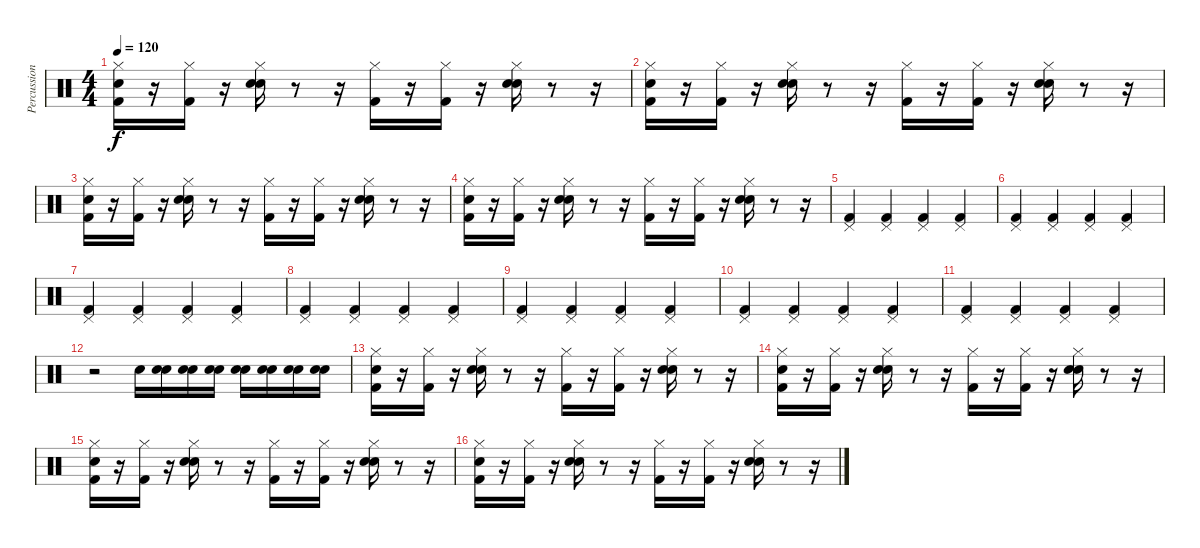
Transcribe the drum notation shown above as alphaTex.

\track ("Percussions" "Percussion") {instrument percussion}
\staff {score}
\articulation defaults
\ts (4 4)
\tempo 120
\clef neutral
\ks c
("Snare (hit)" "Kick (hit) 2" "Hi-Hat (closed)").16{dy f} r.16 ("Kick (hit) 2" "Hi-Hat (closed)").16 r.16 ("Hand Clap (hit)" "Hi-Hat (closed)" "Snare (hit) 2").16 r.8 r.16 ("Hi-Hat (closed)" "Kick (hit) 2").16 r.16 ("Hi-Hat (closed)" "Kick (hit) 2").16 r.16 ("Snare (hit) 2" "Hand Clap (hit)" "Hi-Hat (closed)").16 r.8 r.16 |
("Snare (hit)" "Kick (hit) 2" "Hi-Hat (closed)").16 r.16 ("Kick (hit) 2" "Hi-Hat (closed)").16 r.16 ("Hand Clap (hit)" "Hi-Hat (closed)" "Snare (hit) 2").16 r.8 r.16 ("Hi-Hat (closed)" "Kick (hit) 2").16 r.16 ("Hi-Hat (closed)" "Kick (hit) 2").16 r.16 ("Snare (hit) 2" "Hand Clap (hit)" "Hi-Hat (closed)").16 r.8 r.16 |
("Snare (hit)" "Kick (hit) 2" "Hi-Hat (closed)").16 r.16 ("Kick (hit) 2" "Hi-Hat (closed)").16 r.16 ("Hand Clap (hit)" "Hi-Hat (closed)" "Snare (hit) 2").16 r.8 r.16 ("Hi-Hat (closed)" "Kick (hit) 2").16 r.16 ("Hi-Hat (closed)" "Kick (hit) 2").16 r.16 ("Snare (hit) 2" "Hand Clap (hit)" "Hi-Hat (closed)").16 r.8 r.16 |
("Snare (hit)" "Kick (hit) 2" "Hi-Hat (closed)").16 r.16 ("Kick (hit) 2" "Hi-Hat (closed)").16 r.16 ("Hand Clap (hit)" "Hi-Hat (closed)" "Snare (hit) 2").16 r.8 r.16 ("Hi-Hat (closed)" "Kick (hit) 2").16 r.16 ("Hi-Hat (closed)" "Kick (hit) 2").16 r.16 ("Snare (hit) 2" "Hand Clap (hit)" "Hi-Hat (closed)").16 r.8 r.16 |
("Pedal Hi-Hat (hit)" "Kick (hit) 2").4 ("Pedal Hi-Hat (hit)" "Kick (hit) 2").4 ("Pedal Hi-Hat (hit)" "Kick (hit) 2").4 ("Pedal Hi-Hat (hit)" "Kick (hit) 2").4 |
("Pedal Hi-Hat (hit)" "Kick (hit) 2").4 ("Pedal Hi-Hat (hit)" "Kick (hit) 2").4 ("Pedal Hi-Hat (hit)" "Kick (hit) 2").4 ("Pedal Hi-Hat (hit)" "Kick (hit) 2").4 |
("Pedal Hi-Hat (hit)" "Kick (hit) 2").4 ("Pedal Hi-Hat (hit)" "Kick (hit) 2").4 ("Pedal Hi-Hat (hit)" "Kick (hit) 2").4 ("Pedal Hi-Hat (hit)" "Kick (hit) 2").4 |
("Pedal Hi-Hat (hit)" "Kick (hit) 2").4 ("Pedal Hi-Hat (hit)" "Kick (hit) 2").4 ("Pedal Hi-Hat (hit)" "Kick (hit) 2").4 ("Pedal Hi-Hat (hit)" "Kick (hit) 2").4 |
("Pedal Hi-Hat (hit)" "Kick (hit) 2").4 ("Pedal Hi-Hat (hit)" "Kick (hit) 2").4 ("Pedal Hi-Hat (hit)" "Kick (hit) 2").4 ("Pedal Hi-Hat (hit)" "Kick (hit) 2").4 |
("Pedal Hi-Hat (hit)" "Kick (hit) 2").4 ("Pedal Hi-Hat (hit)" "Kick (hit) 2").4 ("Pedal Hi-Hat (hit)" "Kick (hit) 2").4 ("Pedal Hi-Hat (hit)" "Kick (hit) 2").4 |
("Pedal Hi-Hat (hit)" "Kick (hit) 2").4 ("Pedal Hi-Hat (hit)" "Kick (hit) 2").4 ("Pedal Hi-Hat (hit)" "Kick (hit) 2").4 ("Pedal Hi-Hat (hit)" "Kick (hit) 2").4 |
r.2 "Snare (hit) 2".16 ("Snare (hit)" "Snare (hit) 2").16 ("Snare (hit)" "Snare (hit) 2").16 ("Snare (hit)" "Snare (hit) 2").16 ("Snare (hit)" "Snare (hit) 2").16 ("Snare (hit)" "Snare (hit) 2").16 ("Snare (hit)" "Snare (hit) 2").16 ("Snare (hit)" "Snare (hit) 2").16 |
("Snare (hit)" "Kick (hit) 2" "Hi-Hat (closed)").16 r.16 ("Kick (hit) 2" "Hi-Hat (closed)").16 r.16 ("Hand Clap (hit)" "Hi-Hat (closed)" "Snare (hit) 2").16 r.8 r.16 ("Hi-Hat (closed)" "Kick (hit) 2").16 r.16 ("Hi-Hat (closed)" "Kick (hit) 2").16 r.16 ("Snare (hit) 2" "Hand Clap (hit)" "Hi-Hat (closed)").16 r.8 r.16 |
("Snare (hit)" "Kick (hit) 2" "Hi-Hat (closed)").16 r.16 ("Kick (hit) 2" "Hi-Hat (closed)").16 r.16 ("Hand Clap (hit)" "Hi-Hat (closed)" "Snare (hit) 2").16 r.8 r.16 ("Hi-Hat (closed)" "Kick (hit) 2").16 r.16 ("Hi-Hat (closed)" "Kick (hit) 2").16 r.16 ("Snare (hit) 2" "Hand Clap (hit)" "Hi-Hat (closed)").16 r.8 r.16 |
("Snare (hit)" "Kick (hit) 2" "Hi-Hat (closed)").16 r.16 ("Kick (hit) 2" "Hi-Hat (closed)").16 r.16 ("Hand Clap (hit)" "Hi-Hat (closed)" "Snare (hit) 2").16 r.8 r.16 ("Hi-Hat (closed)" "Kick (hit) 2").16 r.16 ("Hi-Hat (closed)" "Kick (hit) 2").16 r.16 ("Snare (hit) 2" "Hand Clap (hit)" "Hi-Hat (closed)").16 r.8 r.16 |
("Snare (hit)" "Kick (hit) 2" "Hi-Hat (closed)").16 r.16 ("Kick (hit) 2" "Hi-Hat (closed)").16 r.16 ("Hand Clap (hit)" "Hi-Hat (closed)" "Snare (hit) 2").16 r.8 r.16 ("Hi-Hat (closed)" "Kick (hit) 2").16 r.16 ("Hi-Hat (closed)" "Kick (hit) 2").16 r.16 ("Snare (hit) 2" "Hand Clap (hit)" "Hi-Hat (closed)").16 r.8 r.16
